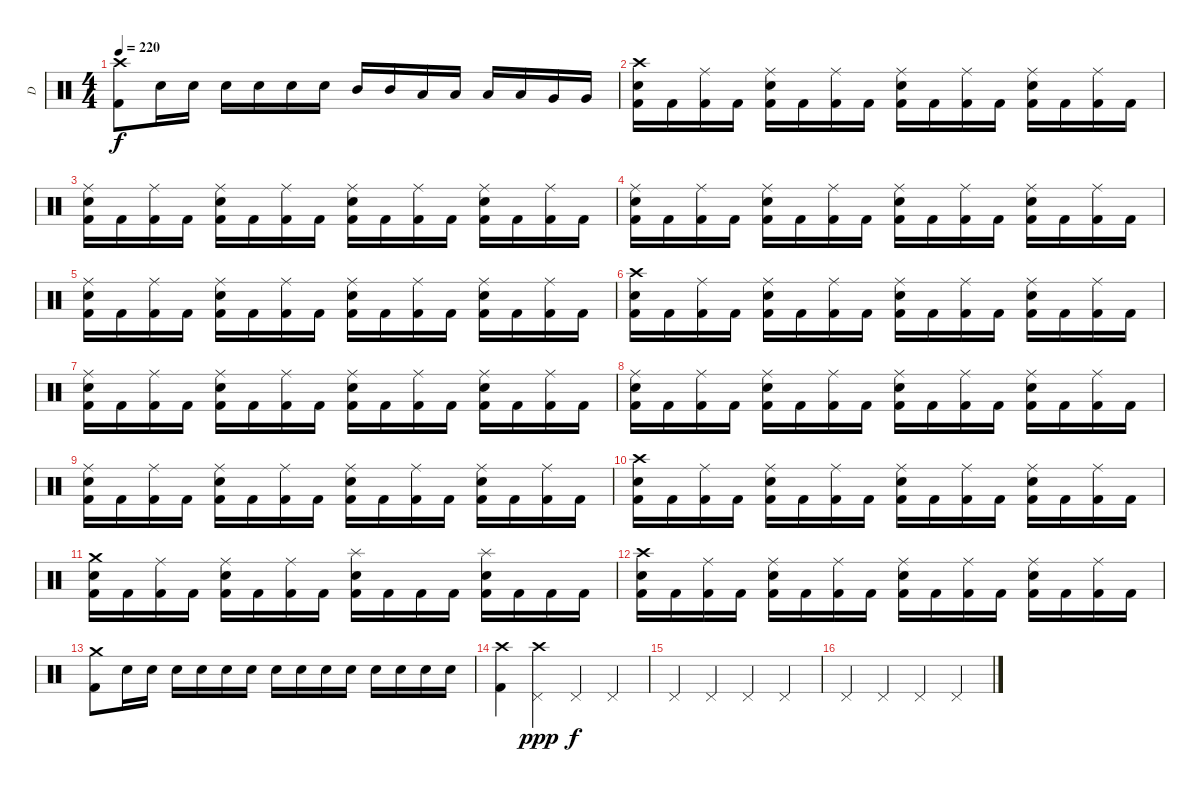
\track ("D" "D") {instrument percussion}
\staff {score}
\articulation defaults
\ts (4 4)
\tempo 220
\clef neutral
\ks c
("Crash high (hit)" "Kick (hit) 2").8{dy f} "Electric Snare (hit)".16 "Electric Snare (hit)".16 "Electric Snare (hit)".16 "Electric Snare (hit)".16 "Electric Snare (hit)".16 "Electric Snare (hit)".16 "Mid Tom (hit)".16 "Mid Tom (hit)".16 "Low Tom (hit)".16 "Low Tom (hit)".16 "Low Tom (hit)".16 "Low Tom (hit)".16 "Very Low Tom (hit)".16 "Very Low Tom (hit)".16 |
("Crash high (hit)" "Electric Snare (hit)" "Kick (hit) 2").16 "Kick (hit) 2".16 ("Ride (middle)" "Kick (hit) 2").16 "Kick (hit) 2".16 ("Ride (middle)" "Electric Snare (hit)" "Kick (hit) 2").16 "Kick (hit) 2".16 ("Ride (middle)" "Kick (hit) 2").16 "Kick (hit) 2".16 ("Ride (middle)" "Electric Snare (hit)" "Kick (hit) 2").16 "Kick (hit) 2".16 ("Ride (middle)" "Kick (hit) 2").16 "Kick (hit) 2".16 ("Ride (middle)" "Electric Snare (hit)" "Kick (hit) 2").16 "Kick (hit) 2".16 ("Ride (middle)" "Kick (hit) 2").16 "Kick (hit) 2".16 |
("Ride (middle)" "Electric Snare (hit)" "Kick (hit) 2").16 "Kick (hit) 2".16 ("Ride (middle)" "Kick (hit) 2").16 "Kick (hit) 2".16 ("Ride (middle)" "Electric Snare (hit)" "Kick (hit) 2").16 "Kick (hit) 2".16 ("Ride (middle)" "Kick (hit) 2").16 "Kick (hit) 2".16 ("Ride (middle)" "Electric Snare (hit)" "Kick (hit) 2").16 "Kick (hit) 2".16 ("Ride (middle)" "Kick (hit) 2").16 "Kick (hit) 2".16 ("Ride (middle)" "Electric Snare (hit)" "Kick (hit) 2").16 "Kick (hit) 2".16 ("Ride (middle)" "Kick (hit) 2").16 "Kick (hit) 2".16 |
("Ride (middle)" "Electric Snare (hit)" "Kick (hit) 2").16 "Kick (hit) 2".16 ("Ride (middle)" "Kick (hit) 2").16 "Kick (hit) 2".16 ("Ride (middle)" "Electric Snare (hit)" "Kick (hit) 2").16 "Kick (hit) 2".16 ("Ride (middle)" "Kick (hit) 2").16 "Kick (hit) 2".16 ("Ride (middle)" "Electric Snare (hit)" "Kick (hit) 2").16 "Kick (hit) 2".16 ("Ride (middle)" "Kick (hit) 2").16 "Kick (hit) 2".16 ("Ride (middle)" "Electric Snare (hit)" "Kick (hit) 2").16 "Kick (hit) 2".16 ("Ride (middle)" "Kick (hit) 2").16 "Kick (hit) 2".16 |
("Ride (middle)" "Electric Snare (hit)" "Kick (hit) 2").16 "Kick (hit) 2".16 ("Ride (middle)" "Kick (hit) 2").16 "Kick (hit) 2".16 ("Ride (middle)" "Electric Snare (hit)" "Kick (hit) 2").16 "Kick (hit) 2".16 ("Ride (middle)" "Kick (hit) 2").16 "Kick (hit) 2".16 ("Ride (middle)" "Electric Snare (hit)" "Kick (hit) 2").16 "Kick (hit) 2".16 ("Ride (middle)" "Kick (hit) 2").16 "Kick (hit) 2".16 ("Ride (middle)" "Electric Snare (hit)" "Kick (hit) 2").16 "Kick (hit) 2".16 ("Ride (middle)" "Kick (hit) 2").16 "Kick (hit) 2".16 |
("Crash high (hit)" "Electric Snare (hit)" "Kick (hit) 2").16 "Kick (hit) 2".16 ("Ride (middle)" "Kick (hit) 2").16 "Kick (hit) 2".16 ("Ride (middle)" "Electric Snare (hit)" "Kick (hit) 2").16 "Kick (hit) 2".16 ("Ride (middle)" "Kick (hit) 2").16 "Kick (hit) 2".16 ("Ride (middle)" "Electric Snare (hit)" "Kick (hit) 2").16 "Kick (hit) 2".16 ("Ride (middle)" "Kick (hit) 2").16 "Kick (hit) 2".16 ("Ride (middle)" "Electric Snare (hit)" "Kick (hit) 2").16 "Kick (hit) 2".16 ("Ride (middle)" "Kick (hit) 2").16 "Kick (hit) 2".16 |
("Ride (middle)" "Electric Snare (hit)" "Kick (hit) 2").16 "Kick (hit) 2".16 ("Ride (middle)" "Kick (hit) 2").16 "Kick (hit) 2".16 ("Ride (middle)" "Electric Snare (hit)" "Kick (hit) 2").16 "Kick (hit) 2".16 ("Ride (middle)" "Kick (hit) 2").16 "Kick (hit) 2".16 ("Ride (middle)" "Electric Snare (hit)" "Kick (hit) 2").16 "Kick (hit) 2".16 ("Ride (middle)" "Kick (hit) 2").16 "Kick (hit) 2".16 ("Ride (middle)" "Electric Snare (hit)" "Kick (hit) 2").16 "Kick (hit) 2".16 ("Ride (middle)" "Kick (hit) 2").16 "Kick (hit) 2".16 |
("Ride (middle)" "Electric Snare (hit)" "Kick (hit) 2").16 "Kick (hit) 2".16 ("Ride (middle)" "Kick (hit) 2").16 "Kick (hit) 2".16 ("Ride (middle)" "Electric Snare (hit)" "Kick (hit) 2").16 "Kick (hit) 2".16 ("Ride (middle)" "Kick (hit) 2").16 "Kick (hit) 2".16 ("Ride (middle)" "Electric Snare (hit)" "Kick (hit) 2").16 "Kick (hit) 2".16 ("Ride (middle)" "Kick (hit) 2").16 "Kick (hit) 2".16 ("Ride (middle)" "Electric Snare (hit)" "Kick (hit) 2").16 "Kick (hit) 2".16 ("Ride (middle)" "Kick (hit) 2").16 "Kick (hit) 2".16 |
("Ride (middle)" "Electric Snare (hit)" "Kick (hit) 2").16 "Kick (hit) 2".16 ("Ride (middle)" "Kick (hit) 2").16 "Kick (hit) 2".16 ("Ride (middle)" "Electric Snare (hit)" "Kick (hit) 2").16 "Kick (hit) 2".16 ("Ride (middle)" "Kick (hit) 2").16 "Kick (hit) 2".16 ("Ride (middle)" "Electric Snare (hit)" "Kick (hit) 2").16 "Kick (hit) 2".16 ("Ride (middle)" "Kick (hit) 2").16 "Kick (hit) 2".16 ("Ride (middle)" "Electric Snare (hit)" "Kick (hit) 2").16 "Kick (hit) 2".16 ("Ride (middle)" "Kick (hit) 2").16 "Kick (hit) 2".16 |
("Crash high (hit)" "Electric Snare (hit)" "Kick (hit) 2").16 "Kick (hit) 2".16 ("Ride (middle)" "Kick (hit) 2").16 "Kick (hit) 2".16 ("Ride (middle)" "Electric Snare (hit)" "Kick (hit) 2").16 "Kick (hit) 2".16 ("Ride (middle)" "Kick (hit) 2").16 "Kick (hit) 2".16 ("Ride (middle)" "Electric Snare (hit)" "Kick (hit) 2").16 "Kick (hit) 2".16 ("Ride (middle)" "Kick (hit) 2").16 "Kick (hit) 2".16 ("Ride (middle)" "Electric Snare (hit)" "Kick (hit) 2").16 "Kick (hit) 2".16 ("Ride (middle)" "Kick (hit) 2").16 "Kick (hit) 2".16 |
("Crash medium (hit)" "Electric Snare (hit)" "Kick (hit) 2").16 "Kick (hit) 2".16 ("Ride (middle)" "Kick (hit) 2").16 "Kick (hit) 2".16 ("Ride (middle)" "Electric Snare (hit)" "Kick (hit) 2").16 "Kick (hit) 2".16 ("Ride (middle)" "Kick (hit) 2").16 "Kick (hit) 2".16 ("Splash (hit)" "Electric Snare (hit)" "Kick (hit) 2").16 "Kick (hit) 2".16 "Kick (hit) 2".16 "Kick (hit) 2".16 ("Splash (hit)" "Electric Snare (hit)" "Kick (hit) 2").16 "Kick (hit) 2".16 "Kick (hit) 2".16 "Kick (hit) 2".16 |
("Crash high (hit)" "Electric Snare (hit)" "Kick (hit) 2").16 "Kick (hit) 2".16 ("Ride (middle)" "Kick (hit) 2").16 "Kick (hit) 2".16 ("Ride (middle)" "Electric Snare (hit)" "Kick (hit) 2").16 "Kick (hit) 2".16 ("Ride (middle)" "Kick (hit) 2").16 "Kick (hit) 2".16 ("Ride (middle)" "Electric Snare (hit)" "Kick (hit) 2").16 "Kick (hit) 2".16 ("Ride (middle)" "Kick (hit) 2").16 "Kick (hit) 2".16 ("Ride (middle)" "Electric Snare (hit)" "Kick (hit) 2").16 "Kick (hit) 2".16 ("Ride (middle)" "Kick (hit) 2").16 "Kick (hit) 2".16 |
("Crash medium (hit)" "Kick (hit) 2").8 "Electric Snare (hit)".16 "Electric Snare (hit)".16 "Electric Snare (hit)".16 "Electric Snare (hit)".16 "Electric Snare (hit)".16 "Electric Snare (hit)".16 "Electric Snare (hit)".16 "Electric Snare (hit)".16 "Electric Snare (hit)".16 "Electric Snare (hit)".16 "Electric Snare (hit)".16 "Electric Snare (hit)".16 "Electric Snare (hit)".16 "Electric Snare (hit)".16 |
("Crash high (hit)" "Kick (hit) 2").4 ("Crash high (hit)" "Pedal Hi-Hat (hit)").4{dy ppp} "Pedal Hi-Hat (hit)".4{dy f} "Pedal Hi-Hat (hit)".4 |
"Pedal Hi-Hat (hit)".4 "Pedal Hi-Hat (hit)".4 "Pedal Hi-Hat (hit)".4 "Pedal Hi-Hat (hit)".4 |
"Pedal Hi-Hat (hit)".4 "Pedal Hi-Hat (hit)".4 "Pedal Hi-Hat (hit)".4 "Pedal Hi-Hat (hit)".4
